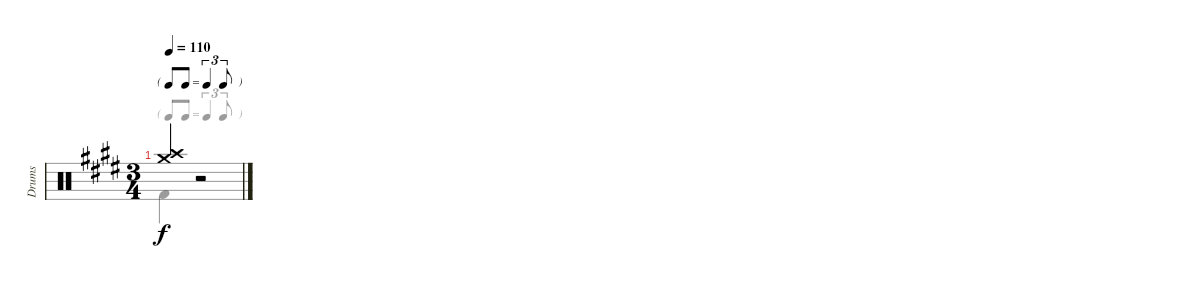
\track ("Drums" "Drums") {instrument percussion}
\staff {score}
\articulation defaults
\voice
\ts (3 4)
\tf triplet8th
\tempo 110
\clef neutral
\ks e
("Crash medium (hit)" "Crash high (hit)").4{dy f} r.2
\voice
\clef neutral
\ottava regular
\simile none
\ks e "Kick (hit) 2".4{dy f}
r.2
